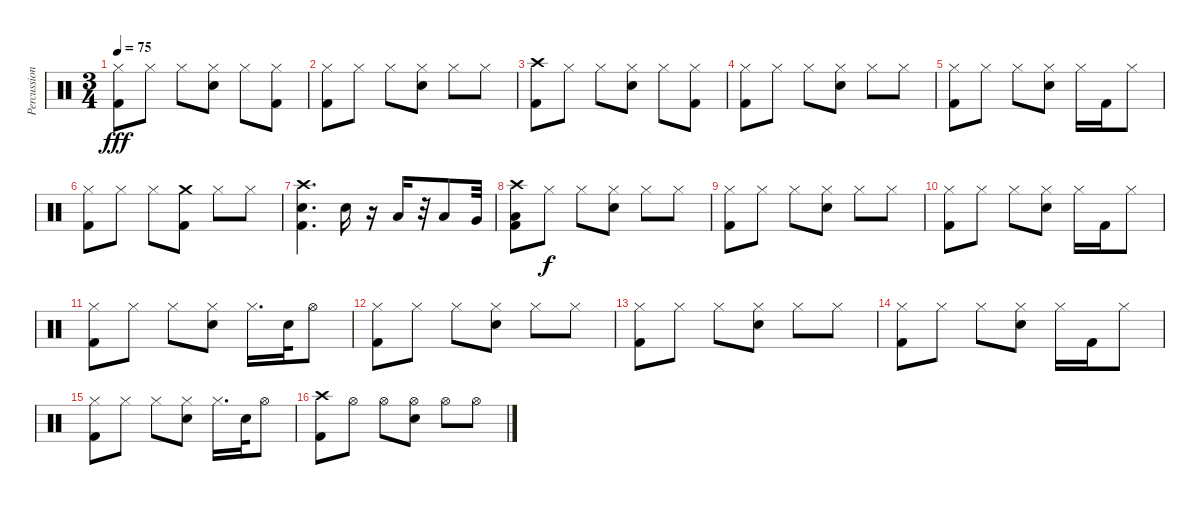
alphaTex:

\track ("Percussions" "Percussion") {instrument percussion}
\staff {score}
\articulation defaults
\ts (3 4)
\tempo 75
\clef neutral
\ks c
("Kick (hit) 2" "Hi-Hat (closed)").8{dy fff} "Hi-Hat (closed)".8 "Hi-Hat (closed)".8 ("Snare (hit) 2" "Hi-Hat (closed)").8 "Hi-Hat (closed)".8 ("Kick (hit) 2" "Hi-Hat (closed)").8 |
("Kick (hit) 2" "Hi-Hat (closed)").8 "Hi-Hat (closed)".8 "Hi-Hat (closed)".8 ("Snare (hit) 2" "Hi-Hat (closed)").8 "Hi-Hat (closed)".8 "Hi-Hat (closed)".8 |
("Kick (hit) 2" "Crash high (hit)").8 "Hi-Hat (closed)".8 "Hi-Hat (closed)".8 ("Snare (hit) 2" "Hi-Hat (closed)").8 "Hi-Hat (closed)".8 ("Kick (hit) 2" "Hi-Hat (closed)").8 |
("Kick (hit) 2" "Hi-Hat (closed)").8 "Hi-Hat (closed)".8 "Hi-Hat (closed)".8 ("Snare (hit) 2" "Hi-Hat (closed)").8 "Hi-Hat (closed)".8 "Hi-Hat (closed)".8 |
("Kick (hit) 2" "Hi-Hat (closed)").8 "Hi-Hat (closed)".8 "Hi-Hat (closed)".8 ("Snare (hit) 2" "Hi-Hat (closed)").8 "Hi-Hat (closed)".16 "Kick (hit) 2".16 "Hi-Hat (closed)".8 |
("Kick (hit) 2" "Hi-Hat (closed)").8 "Hi-Hat (closed)".8 "Hi-Hat (closed)".8 ("Kick (hit) 2" "Crash medium (hit)").8 "Hi-Hat (closed)".8 "Hi-Hat (closed)".8 |
("Snare (hit) 2" "Kick (hit) 2" "Crash high (hit)").4{d} "Snare (hit) 2".16 r.16 "Low Tom (hit)".16 r.32 "Low Tom (hit)".8 "Very Low Tom (hit)".32 |
("Low Floor Tom (hit)" "Kick (hit) 2" "Crash high (hit)").8 "Hi-Hat (closed)".8{dy f} "Hi-Hat (closed)".8 ("Snare (hit) 2" "Hi-Hat (closed)").8 "Hi-Hat (closed)".8 "Hi-Hat (closed)".8 |
("Kick (hit) 2" "Hi-Hat (closed)").8 "Hi-Hat (closed)".8 "Hi-Hat (closed)".8 ("Snare (hit) 2" "Hi-Hat (closed)").8 "Hi-Hat (closed)".8 "Hi-Hat (closed)".8 |
("Kick (hit) 2" "Hi-Hat (closed)").8 "Hi-Hat (closed)".8 "Hi-Hat (closed)".8 ("Snare (hit) 2" "Hi-Hat (closed)").8 "Hi-Hat (closed)".16 "Kick (hit) 2".16 "Hi-Hat (closed)".8 |
("Kick (hit) 2" "Hi-Hat (closed)").8 "Hi-Hat (closed)".8 "Hi-Hat (closed)".8 ("Snare (hit) 2" "Hi-Hat (closed)").8 "Hi-Hat (closed)".16{d} "Snare (hit) 2".32 "Hi-Hat (open)".8 |
("Kick (hit) 2" "Hi-Hat (closed)").8 "Hi-Hat (closed)".8 "Hi-Hat (closed)".8 ("Snare (hit) 2" "Hi-Hat (closed)").8 "Hi-Hat (closed)".8 "Hi-Hat (closed)".8 |
("Kick (hit) 2" "Hi-Hat (closed)").8 "Hi-Hat (closed)".8 "Hi-Hat (closed)".8 ("Snare (hit) 2" "Hi-Hat (closed)").8 "Hi-Hat (closed)".8 "Hi-Hat (closed)".8 |
("Kick (hit) 2" "Hi-Hat (closed)").8 "Hi-Hat (closed)".8 "Hi-Hat (closed)".8 ("Snare (hit) 2" "Hi-Hat (closed)").8 "Hi-Hat (closed)".16 "Kick (hit) 2".16 "Hi-Hat (closed)".8 |
("Kick (hit) 2" "Hi-Hat (closed)").8 "Hi-Hat (closed)".8 "Hi-Hat (closed)".8 ("Snare (hit) 2" "Hi-Hat (closed)").8 "Hi-Hat (closed)".16{d} "Snare (hit) 2".32 "Hi-Hat (open)".8 |
("Kick (hit) 2" "Crash high (hit)").8 "Hi-Hat (open)".8 "Hi-Hat (open)".8 ("Snare (hit) 2" "Hi-Hat (open)").8 "Hi-Hat (open)".8 "Hi-Hat (open)".8
